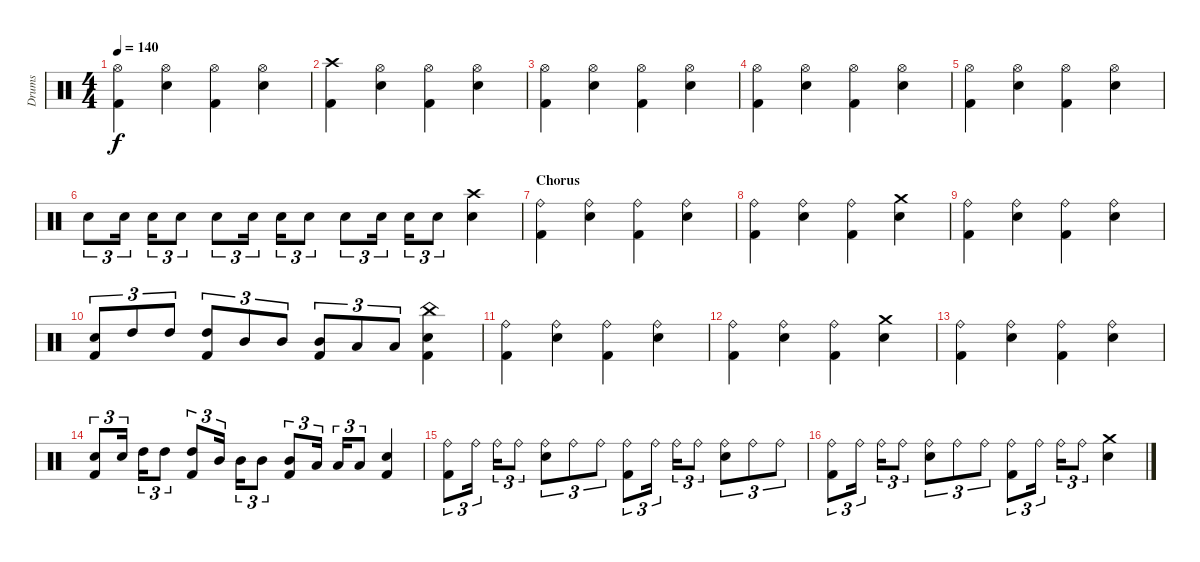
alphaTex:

\track ("Drums" "Drums") {instrument percussion}
\staff {score}
\articulation defaults
\ts (4 4)
\tempo 140
\clef neutral
\ks c
("Hi-Hat (open)" "Kick (hit) 2").4{dy f} ("Hi-Hat (open)" "Electric Snare (hit)").4 ("Hi-Hat (open)" "Kick (hit) 2").4 ("Hi-Hat (open)" "Electric Snare (hit)").4 |
("Crash high (hit)" "Kick (hit) 2").4 ("Hi-Hat (open)" "Electric Snare (hit)").4 ("Hi-Hat (open)" "Kick (hit) 2").4 ("Hi-Hat (open)" "Electric Snare (hit)").4 |
("Hi-Hat (open)" "Kick (hit) 2").4 ("Hi-Hat (open)" "Electric Snare (hit)").4 ("Hi-Hat (open)" "Kick (hit) 2").4 ("Hi-Hat (open)" "Electric Snare (hit)").4 |
("Hi-Hat (open)" "Kick (hit) 2").4 ("Hi-Hat (open)" "Electric Snare (hit)").4 ("Hi-Hat (open)" "Kick (hit) 2").4 ("Hi-Hat (open)" "Electric Snare (hit)").4 |
("Hi-Hat (open)" "Kick (hit) 2").4 ("Hi-Hat (open)" "Electric Snare (hit)").4 ("Hi-Hat (open)" "Kick (hit) 2").4 ("Hi-Hat (open)" "Electric Snare (hit)").4 |
\section ("" "")
"Electric Snare (hit)".8{tu (3 2)} "Electric Snare (hit)".16{tu (3 2)} "Electric Snare (hit)".16{tu (3 2)} "Electric Snare (hit)".8{tu (3 2)} "Electric Snare (hit)".8{tu (3 2)} "Electric Snare (hit)".16{tu (3 2)} "Electric Snare (hit)".16{tu (3 2)} "Electric Snare (hit)".8{tu (3 2)} "Electric Snare (hit)".8{tu (3 2)} "Electric Snare (hit)".16{tu (3 2)} "Electric Snare (hit)".16{tu (3 2)} "Electric Snare (hit)".8{tu (3 2)} ("Crash high (hit)" "Electric Snare (hit)").4 |
\section ("" "Chorus")
("Ride (bell)" "Kick (hit) 2").4 ("Ride (bell)" "Electric Snare (hit)").4 ("Ride (bell)" "Kick (hit) 2").4 ("Ride (bell)" "Electric Snare (hit)").4 |
("Ride (bell)" "Kick (hit) 2").4 ("Ride (bell)" "Electric Snare (hit)").4 ("Ride (bell)" "Kick (hit) 2").4 ("Crash medium (hit)" "Electric Snare (hit)").4 |
("Ride (bell)" "Kick (hit) 2").4 ("Ride (bell)" "Electric Snare (hit)").4 ("Ride (bell)" "Kick (hit) 2").4 ("Ride (bell)" "Electric Snare (hit)").4 |
("Electric Snare (hit)" "Kick (hit) 2").8{tu (3 2)} "High Tom (hit)".8{tu (3 2)} "High Tom (hit)".8{tu (3 2)} ("High Tom (hit)" "Kick (hit) 2").8{tu (3 2)} "Mid Tom (hit)".8{tu (3 2)} "Mid Tom (hit)".8{tu (3 2)} ("Mid Tom (hit)" "Kick (hit) 2").8{tu (3 2)} "Low Tom (hit)".8{tu (3 2)} "Low Tom (hit)".8{tu (3 2)} ("China (hit)" "Electric Snare (hit)" "Kick (hit) 2").4 |
("Ride (bell)" "Kick (hit) 2").4 ("Ride (bell)" "Electric Snare (hit)").4 ("Ride (bell)" "Kick (hit) 2").4 ("Ride (bell)" "Electric Snare (hit)").4 |
("Ride (bell)" "Kick (hit) 2").4 ("Ride (bell)" "Electric Snare (hit)").4 ("Ride (bell)" "Kick (hit) 2").4 ("Crash medium (hit)" "Electric Snare (hit)").4 |
("Ride (bell)" "Kick (hit) 2").4 ("Ride (bell)" "Electric Snare (hit)").4 ("Ride (bell)" "Kick (hit) 2").4 ("Ride (bell)" "Electric Snare (hit)").4 |
("Electric Snare (hit)" "Kick (hit) 2").8{tu (3 2)} "Electric Snare (hit)".16{tu (3 2)} "High Tom (hit)".16{tu (3 2)} "High Tom (hit)".8{tu (3 2)} ("High Tom (hit)" "Kick (hit) 2").8{tu (3 2)} "Mid Tom (hit)".16{tu (3 2)} "Mid Tom (hit)".16{tu (3 2)} "Mid Tom (hit)".8{tu (3 2)} ("Mid Tom (hit)" "Kick (hit) 2").8{tu (3 2)} "Low Tom (hit)".16{tu (3 2)} "Low Tom (hit)".16{tu (3 2)} "Low Tom (hit)".8{tu (3 2)} ("Electric Snare (hit)" "Kick (hit) 2").4 |
("Ride (bell)" "Kick (hit) 2").8{tu (3 2)} "Ride (bell)".16{tu (3 2)} "Ride (bell)".16{tu (3 2)} "Ride (bell)".8{tu (3 2)} ("Ride (bell)" "Electric Snare (hit)").8{tu (3 2)} "Ride (bell)".8{tu (3 2)} "Ride (bell)".8{tu (3 2)} ("Ride (bell)" "Kick (hit) 2").8{tu (3 2)} "Ride (bell)".16{tu (3 2)} "Ride (bell)".16{tu (3 2)} "Ride (bell)".8{tu (3 2)} ("Ride (bell)" "Electric Snare (hit)").8{tu (3 2)} "Ride (bell)".8{tu (3 2)} "Ride (bell)".8{tu (3 2)} |
("Ride (bell)" "Kick (hit) 2").8{tu (3 2)} "Ride (bell)".16{tu (3 2)} "Ride (bell)".16{tu (3 2)} "Ride (bell)".8{tu (3 2)} ("Ride (bell)" "Electric Snare (hit)").8{tu (3 2)} "Ride (bell)".8{tu (3 2)} "Ride (bell)".8{tu (3 2)} ("Ride (bell)" "Kick (hit) 2").8{tu (3 2)} "Ride (bell)".16{tu (3 2)} "Ride (bell)".16{tu (3 2)} "Ride (bell)".8{tu (3 2)} ("Crash medium (hit)" "Electric Snare (hit)").4
